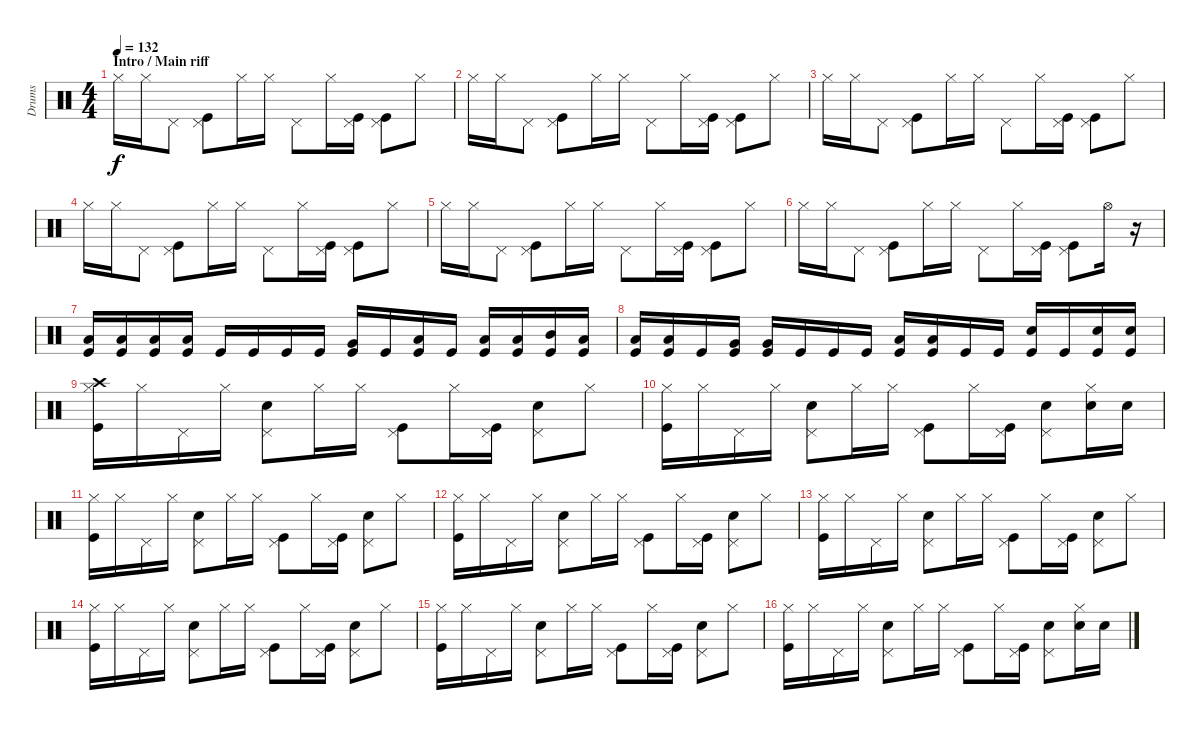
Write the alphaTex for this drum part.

\track ("Drums" "Drums") {instrument percussion}
\staff {score}
\articulation defaults
\ts (4 4)
\section ("" "Intro / Main riff")
\tempo 132
\clef neutral
\ks c "Hi-Hat (closed)".16{dy f} "Hi-Hat (closed)".16 "Pedal Hi-Hat (hit)".8
("Pedal Hi-Hat (hit)" "Kick (hit)").8 "Hi-Hat (closed)".16 "Hi-Hat (closed)".16 "Pedal Hi-Hat (hit)".8 "Hi-Hat (closed)".16 ("Pedal Hi-Hat (hit)" "Kick (hit)").16 ("Pedal Hi-Hat (hit)" "Kick (hit)").8 "Hi-Hat (closed)".8 |
"Hi-Hat (closed)".16 "Hi-Hat (closed)".16 "Pedal Hi-Hat (hit)".8 ("Pedal Hi-Hat (hit)" "Kick (hit)").8 "Hi-Hat (closed)".16 "Hi-Hat (closed)".16 "Pedal Hi-Hat (hit)".8 "Hi-Hat (closed)".16 ("Pedal Hi-Hat (hit)" "Kick (hit)").16 ("Pedal Hi-Hat (hit)" "Kick (hit)").8 "Hi-Hat (closed)".8 |
"Hi-Hat (closed)".16 "Hi-Hat (closed)".16 "Pedal Hi-Hat (hit)".8 ("Pedal Hi-Hat (hit)" "Kick (hit)").8 "Hi-Hat (closed)".16 "Hi-Hat (closed)".16 "Pedal Hi-Hat (hit)".8 "Hi-Hat (closed)".16 ("Pedal Hi-Hat (hit)" "Kick (hit)").16 ("Pedal Hi-Hat (hit)" "Kick (hit)").8 "Hi-Hat (closed)".8 |
"Hi-Hat (closed)".16 "Hi-Hat (closed)".16 "Pedal Hi-Hat (hit)".8 ("Pedal Hi-Hat (hit)" "Kick (hit)").8 "Hi-Hat (closed)".16 "Hi-Hat (closed)".16 "Pedal Hi-Hat (hit)".8 "Hi-Hat (closed)".16 ("Pedal Hi-Hat (hit)" "Kick (hit)").16 ("Pedal Hi-Hat (hit)" "Kick (hit)").8 "Hi-Hat (closed)".8 |
"Hi-Hat (closed)".16 "Hi-Hat (closed)".16 "Pedal Hi-Hat (hit)".8 ("Pedal Hi-Hat (hit)" "Kick (hit)").8 "Hi-Hat (closed)".16 "Hi-Hat (closed)".16 "Pedal Hi-Hat (hit)".8 "Hi-Hat (closed)".16 ("Pedal Hi-Hat (hit)" "Kick (hit)").16 ("Pedal Hi-Hat (hit)" "Kick (hit)").8 "Hi-Hat (closed)".8 |
"Hi-Hat (closed)".16 "Hi-Hat (closed)".16 "Pedal Hi-Hat (hit)".8 ("Pedal Hi-Hat (hit)" "Kick (hit)").8 "Hi-Hat (closed)".16 "Hi-Hat (closed)".16 "Pedal Hi-Hat (hit)".8 "Hi-Hat (closed)".16 ("Pedal Hi-Hat (hit)" "Kick (hit)").16 ("Pedal Hi-Hat (hit)" "Kick (hit)").8 "Hi-Hat (open)".16 r.16{volume 0} |
("Low Tom (hit)" "Kick (hit)").16{volume 16} ("Low Tom (hit)" "Kick (hit)").16 ("Low Tom (hit)" "Kick (hit)").16 ("Low Tom (hit)" "Kick (hit)").16 "Kick (hit)".16 "Kick (hit)".16 "Kick (hit)".16 "Kick (hit)".16 ("Very Low Tom (hit)" "Kick (hit)").16 "Kick (hit)".16 ("Low Floor Tom (hit)" "Kick (hit)").16 "Kick (hit)".16 ("Low Tom (hit)" "Kick (hit)").16 ("Low Tom (hit)" "Kick (hit)").16 ("Mid Tom (hit)" "Kick (hit)").16 ("Low Tom (hit)" "Kick (hit)").16 |
("Low Tom (hit)" "Kick (hit)").16 ("Low Tom (hit)" "Kick (hit)").16 "Kick (hit)".16 ("Very Low Tom (hit)" "Kick (hit)").16 ("Very Low Tom (hit)" "Kick (hit)").16 "Kick (hit)".16 "Kick (hit)".16 "Kick (hit)".16 ("Low Tom (hit)" "Kick (hit)").16 ("Low Tom (hit)" "Kick (hit)").16 "Kick (hit)".16 "Kick (hit)".16 ("Snare (hit) 2" "Kick (hit)").16 "Kick (hit)".16 ("Snare (hit) 2" "Kick (hit)").16 ("Snare (hit) 2" "Kick (hit)").16 |
("Hi-Hat (closed)" "Crash high (hit)" "Kick (hit)").16 "Hi-Hat (closed)".16 "Pedal Hi-Hat (hit)".16 "Hi-Hat (closed)".16 ("Pedal Hi-Hat (hit)" "Snare (hit) 2").8 "Hi-Hat (closed)".16 "Hi-Hat (closed)".16 ("Pedal Hi-Hat (hit)" "Kick (hit)").8 "Hi-Hat (closed)".16 ("Pedal Hi-Hat (hit)" "Kick (hit)").16 ("Pedal Hi-Hat (hit)" "Snare (hit) 2").8 "Hi-Hat (closed)".8 |
("Hi-Hat (closed)" "Kick (hit)").16 "Hi-Hat (closed)".16 "Pedal Hi-Hat (hit)".16 "Hi-Hat (closed)".16 ("Pedal Hi-Hat (hit)" "Snare (hit) 2").8 "Hi-Hat (closed)".16 "Hi-Hat (closed)".16 ("Pedal Hi-Hat (hit)" "Kick (hit)").8 "Hi-Hat (closed)".16 ("Pedal Hi-Hat (hit)" "Kick (hit)").16 ("Pedal Hi-Hat (hit)" "Snare (hit) 2").8 ("Hi-Hat (closed)" "Snare (hit) 2").16 "Snare (hit) 2".16 |
("Hi-Hat (closed)" "Kick (hit)").16 "Hi-Hat (closed)".16 "Pedal Hi-Hat (hit)".16 "Hi-Hat (closed)".16 ("Pedal Hi-Hat (hit)" "Snare (hit) 2").8 "Hi-Hat (closed)".16 "Hi-Hat (closed)".16 ("Pedal Hi-Hat (hit)" "Kick (hit)").8 "Hi-Hat (closed)".16 ("Pedal Hi-Hat (hit)" "Kick (hit)").16 ("Pedal Hi-Hat (hit)" "Snare (hit) 2").8 "Hi-Hat (closed)".8 |
("Hi-Hat (closed)" "Kick (hit)").16 "Hi-Hat (closed)".16 "Pedal Hi-Hat (hit)".16 "Hi-Hat (closed)".16 ("Pedal Hi-Hat (hit)" "Snare (hit) 2").8 "Hi-Hat (closed)".16 "Hi-Hat (closed)".16 ("Pedal Hi-Hat (hit)" "Kick (hit)").8 "Hi-Hat (closed)".16 ("Pedal Hi-Hat (hit)" "Kick (hit)").16 ("Pedal Hi-Hat (hit)" "Snare (hit) 2").8 "Hi-Hat (closed)".8 |
("Hi-Hat (closed)" "Kick (hit)").16 "Hi-Hat (closed)".16 "Pedal Hi-Hat (hit)".16 "Hi-Hat (closed)".16 ("Pedal Hi-Hat (hit)" "Snare (hit) 2").8 "Hi-Hat (closed)".16 "Hi-Hat (closed)".16 ("Pedal Hi-Hat (hit)" "Kick (hit)").8 "Hi-Hat (closed)".16 ("Pedal Hi-Hat (hit)" "Kick (hit)").16 ("Pedal Hi-Hat (hit)" "Snare (hit) 2").8 "Hi-Hat (closed)".8 |
("Hi-Hat (closed)" "Kick (hit)").16 "Hi-Hat (closed)".16 "Pedal Hi-Hat (hit)".16 "Hi-Hat (closed)".16 ("Pedal Hi-Hat (hit)" "Snare (hit) 2").8 "Hi-Hat (closed)".16 "Hi-Hat (closed)".16 ("Pedal Hi-Hat (hit)" "Kick (hit)").8 "Hi-Hat (closed)".16 ("Pedal Hi-Hat (hit)" "Kick (hit)").16 ("Pedal Hi-Hat (hit)" "Snare (hit) 2").8 "Hi-Hat (closed)".8 |
("Hi-Hat (closed)" "Kick (hit)").16 "Hi-Hat (closed)".16 "Pedal Hi-Hat (hit)".16 "Hi-Hat (closed)".16 ("Pedal Hi-Hat (hit)" "Snare (hit) 2").8 "Hi-Hat (closed)".16 "Hi-Hat (closed)".16 ("Pedal Hi-Hat (hit)" "Kick (hit)").8 "Hi-Hat (closed)".16 ("Pedal Hi-Hat (hit)" "Kick (hit)").16 ("Pedal Hi-Hat (hit)" "Snare (hit) 2").8 "Hi-Hat (closed)".8 |
("Hi-Hat (closed)" "Kick (hit)").16 "Hi-Hat (closed)".16 "Pedal Hi-Hat (hit)".16 "Hi-Hat (closed)".16 ("Pedal Hi-Hat (hit)" "Snare (hit) 2").8 "Hi-Hat (closed)".16 "Hi-Hat (closed)".16 ("Pedal Hi-Hat (hit)" "Kick (hit)").8 "Hi-Hat (closed)".16 ("Pedal Hi-Hat (hit)" "Kick (hit)").16 ("Pedal Hi-Hat (hit)" "Snare (hit) 2").8 ("Hi-Hat (closed)" "Snare (hit) 2").16 "Snare (hit) 2".16
